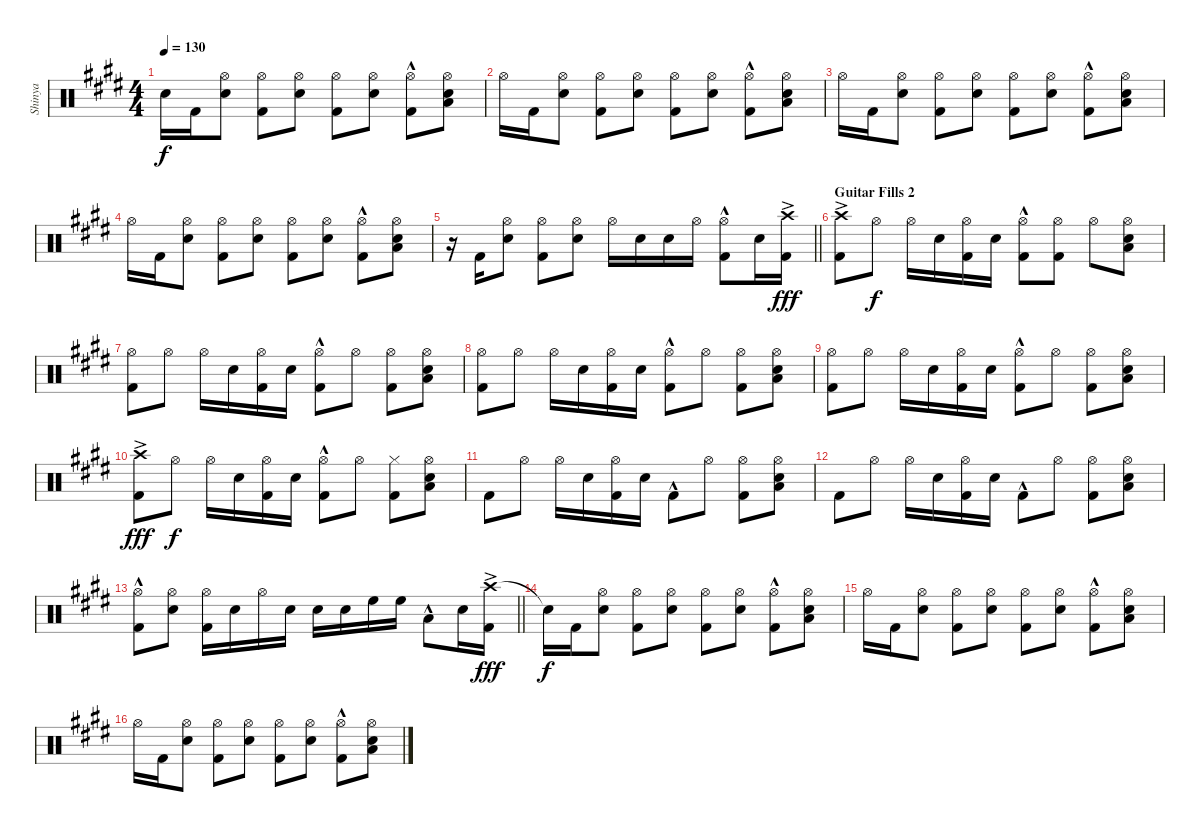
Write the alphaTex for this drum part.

\track ("Shinya" "Shinya") {instrument percussion}
\staff {score}
\articulation defaults
\ts (4 4)
\tempo 130
\clef neutral
\ks e "Snare (hit)"{t}.16{dy f} "Kick (hit) 2".16
("Hi-Hat (open)" "Snare (hit) 2").8 ("Hi-Hat (open)" "Kick (hit) 2").8 ("Hi-Hat (open)" "Snare (hit) 2").8 ("Hi-Hat (open)" "Kick (hit) 2").8 ("Hi-Hat (open)" "Snare (hit) 2").8 ("Hi-Hat (open)" "Kick (hit) 2"{hac}).8 ("Hi-Hat (open)" "Low Floor Tom (hit)" "Snare (hit) 2").8 |
"Hi-Hat (open)".16 "Kick (hit) 2".16 ("Hi-Hat (open)" "Snare (hit) 2").8 ("Hi-Hat (open)" "Kick (hit) 2").8 ("Hi-Hat (open)" "Snare (hit) 2").8 ("Hi-Hat (open)" "Kick (hit) 2").8 ("Hi-Hat (open)" "Snare (hit) 2").8 ("Hi-Hat (open)" "Kick (hit) 2"{hac}).8 ("Hi-Hat (open)" "Low Floor Tom (hit)" "Snare (hit) 2").8 |
"Hi-Hat (open)".16 "Kick (hit) 2".16 ("Hi-Hat (open)" "Snare (hit) 2").8 ("Hi-Hat (open)" "Kick (hit) 2").8 ("Hi-Hat (open)" "Snare (hit) 2").8 ("Hi-Hat (open)" "Kick (hit) 2").8 ("Hi-Hat (open)" "Snare (hit) 2").8 ("Hi-Hat (open)" "Kick (hit) 2"{hac}).8 ("Hi-Hat (open)" "Low Floor Tom (hit)" "Snare (hit) 2").8 |
"Hi-Hat (open)".16 "Kick (hit) 2".16 ("Hi-Hat (open)" "Snare (hit) 2").8 ("Hi-Hat (open)" "Kick (hit) 2").8 ("Hi-Hat (open)" "Snare (hit) 2").8 ("Hi-Hat (open)" "Kick (hit) 2").8 ("Hi-Hat (open)" "Snare (hit) 2").8 ("Hi-Hat (open)" "Kick (hit) 2"{hac}).8 ("Hi-Hat (open)" "Low Floor Tom (hit)" "Snare (hit) 2").8 |
\barLineRight lightlight
r.16 "Kick (hit) 2".16 ("Hi-Hat (open)" "Snare (hit) 2").8 ("Hi-Hat (open)" "Kick (hit) 2").8 ("Hi-Hat (open)" "Snare (hit) 2").8 "Hi-Hat (open)".16 "Snare (hit) 2".16 "Snare (hit) 2".16 "Hi-Hat (open)".16 ("Hi-Hat (open)" "Kick (hit) 2"{hac}).8 "Snare (hit) 2".16 ("Crash high (hit)"{ac} "Kick (hit) 2").16{dy fff} |
\section ("" "Guitar Fills 2")
("Crash high (hit)"{ac} "Kick (hit) 2").8 "Hi-Hat (open)".8{dy f} "Hi-Hat (open)".16 "Snare (hit) 2".16 ("Hi-Hat (open)" "Kick (hit) 2").16 "Snare (hit) 2".16 ("Hi-Hat (open)" "Kick (hit) 2"{hac}).8 ("Hi-Hat (open)" "Kick (hit) 2").8 "Hi-Hat (open)".8 ("Hi-Hat (open)" "Snare (hit) 2" "Low Floor Tom (hit)").8 |
("Hi-Hat (open)" "Kick (hit) 2").8 "Hi-Hat (open)".8 "Hi-Hat (open)".16 "Snare (hit) 2".16 ("Hi-Hat (open)" "Kick (hit) 2").16 "Snare (hit) 2".16 ("Hi-Hat (open)" "Kick (hit) 2"{hac}).8 "Hi-Hat (open)".8 ("Hi-Hat (open)" "Kick (hit) 2").8 ("Hi-Hat (open)" "Low Floor Tom (hit)" "Snare (hit) 2").8 |
("Hi-Hat (open)" "Kick (hit) 2").8 "Hi-Hat (open)".8 "Hi-Hat (open)".16 "Snare (hit) 2".16 ("Hi-Hat (open)" "Kick (hit) 2").16 "Snare (hit) 2".16 ("Hi-Hat (open)" "Kick (hit) 2"{hac}).8 "Hi-Hat (open)".8 ("Hi-Hat (open)" "Kick (hit) 2").8 ("Hi-Hat (open)" "Low Floor Tom (hit)" "Snare (hit) 2").8 |
("Hi-Hat (open)" "Kick (hit) 2").8 "Hi-Hat (open)".8 "Hi-Hat (open)".16 "Snare (hit) 2".16 ("Hi-Hat (open)" "Kick (hit) 2").16 "Snare (hit) 2".16 ("Hi-Hat (open)" "Kick (hit) 2"{hac}).8 "Hi-Hat (open)".8 ("Hi-Hat (open)" "Kick (hit) 2").8 ("Hi-Hat (open)" "Low Floor Tom (hit)" "Snare (hit) 2").8 |
("Crash high (hit)"{ac} "Kick (hit) 2").8{dy fff} "Hi-Hat (open)".8{dy f} "Hi-Hat (open)".16 "Snare (hit) 2".16 ("Hi-Hat (open)" "Kick (hit) 2").16 "Snare (hit) 2".16 ("Hi-Hat (open)" "Kick (hit) 2"{hac}).8 "Hi-Hat (open)".8 ("Hi-Hat (closed)" "Kick (hit) 2").8 ("Hi-Hat (open)" "Low Floor Tom (hit)" "Snare (hit) 2").8 |
"Kick (hit) 2".8 "Hi-Hat (open)".8 "Hi-Hat (open)".16 "Snare (hit) 2".16 ("Hi-Hat (open)" "Kick (hit) 2").16 "Snare (hit) 2".16 "Kick (hit) 2"{hac}.8 "Hi-Hat (open)".8 ("Hi-Hat (open)" "Kick (hit) 2").8 ("Hi-Hat (open)" "Snare (hit) 2" "Low Floor Tom (hit)").8 |
"Kick (hit) 2".8 "Hi-Hat (open)".8 "Hi-Hat (open)".16 "Snare (hit) 2".16 ("Hi-Hat (open)" "Kick (hit) 2").16 "Snare (hit) 2".16 "Kick (hit) 2"{hac}.8 "Hi-Hat (open)".8 ("Hi-Hat (open)" "Kick (hit) 2").8 ("Hi-Hat (open)" "Snare (hit) 2" "Low Floor Tom (hit)").8 |
\barLineRight lightlight
("Hi-Hat (open)" "Kick (hit) 2"{hac}).8 ("Hi-Hat (open)" "Snare (hit) 2").8 ("Hi-Hat (open)" "Kick (hit) 2").16 "Snare (hit) 2".16 "Hi-Hat (open)".16 "Snare (hit) 2".16 "Snare (hit) 2".16 "Snare (hit) 2".16 "High Floor Tom (hit)".16 "High Floor Tom (hit)".16 "Low Tom (hit)"{hac}.8 "Snare (hit) 2".16 ("Crash high (hit)"{ac} "Kick (hit) 2").16{dy fff} |
"Snare (hit)"{t}.16{dy f} "Kick (hit) 2".16 ("Hi-Hat (open)" "Snare (hit) 2").8 ("Hi-Hat (open)" "Kick (hit) 2").8 ("Hi-Hat (open)" "Snare (hit) 2").8 ("Hi-Hat (open)" "Kick (hit) 2").8 ("Hi-Hat (open)" "Snare (hit) 2").8 ("Hi-Hat (open)" "Kick (hit) 2"{hac}).8 ("Hi-Hat (open)" "Low Floor Tom (hit)" "Snare (hit) 2").8 |
"Hi-Hat (open)".16 "Kick (hit) 2".16 ("Hi-Hat (open)" "Snare (hit) 2").8 ("Hi-Hat (open)" "Kick (hit) 2").8 ("Hi-Hat (open)" "Snare (hit) 2").8 ("Hi-Hat (open)" "Kick (hit) 2").8 ("Hi-Hat (open)" "Snare (hit) 2").8 ("Hi-Hat (open)" "Kick (hit) 2"{hac}).8 ("Hi-Hat (open)" "Low Floor Tom (hit)" "Snare (hit) 2").8 |
"Hi-Hat (open)".16 "Kick (hit) 2".16 ("Hi-Hat (open)" "Snare (hit) 2").8 ("Hi-Hat (open)" "Kick (hit) 2").8 ("Hi-Hat (open)" "Snare (hit) 2").8 ("Hi-Hat (open)" "Kick (hit) 2").8 ("Hi-Hat (open)" "Snare (hit) 2").8 ("Hi-Hat (open)" "Kick (hit) 2"{hac}).8 ("Hi-Hat (open)" "Low Floor Tom (hit)" "Snare (hit) 2").8
